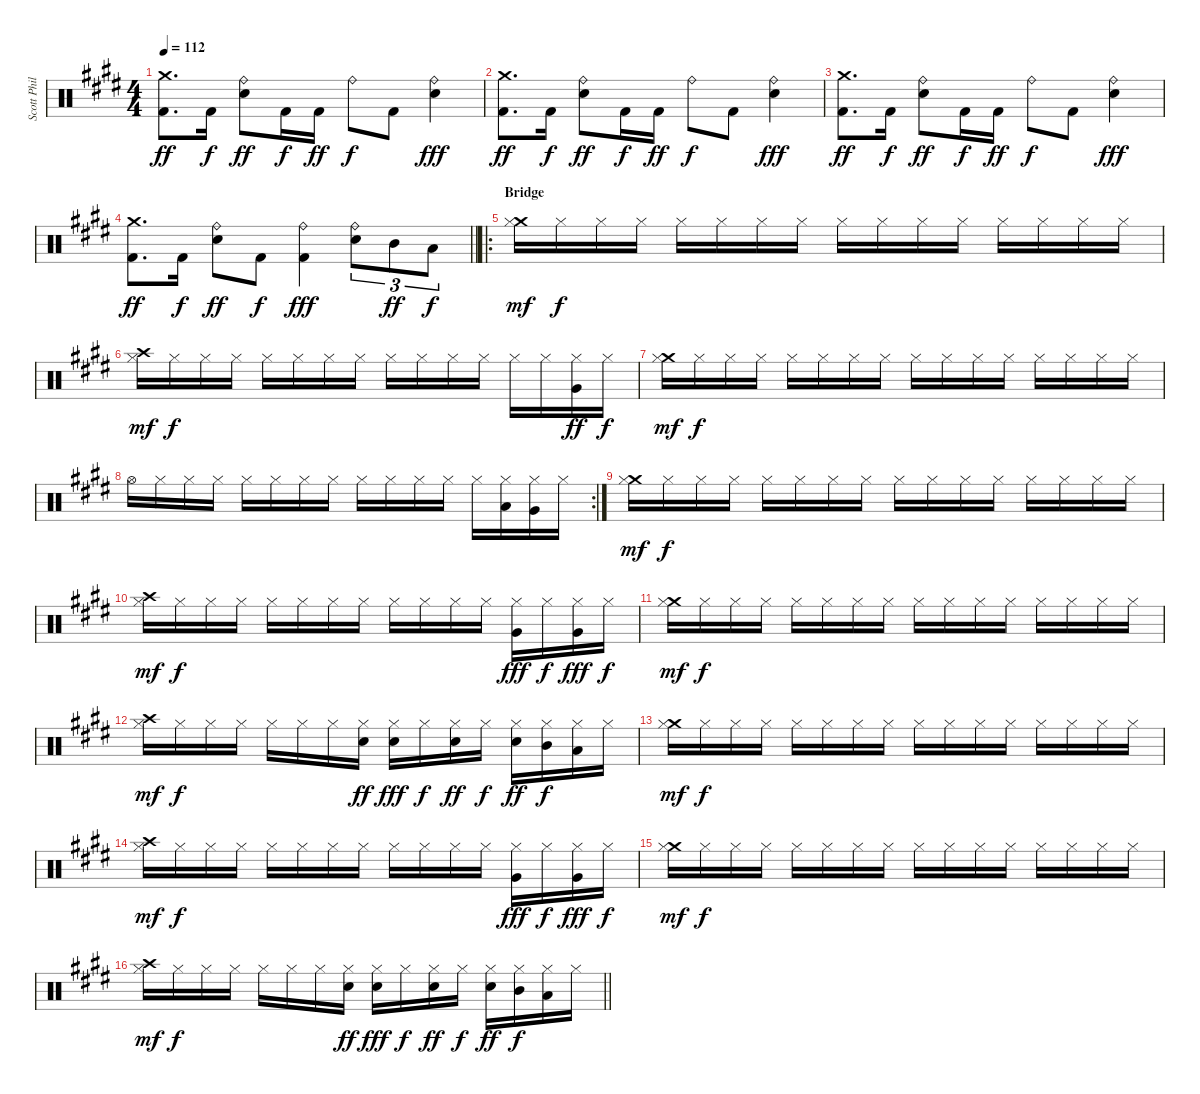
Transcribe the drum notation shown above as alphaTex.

\track ("Scott Phillips" "Scott Phil") {instrument percussion}
\staff {score}
\articulation defaults
\ts (4 4)
\tempo 112
\clef neutral
\ks c#minor
("Crash medium (hit)" "Kick (hit) 2").8{d dy ff} "Kick (hit) 2".16{dy f} ("Ride (bell)" "Electric Snare (hit)").8{dy ff} "Kick (hit) 2".16{dy f} "Kick (hit) 2".16{dy ff} "Ride (bell)".8{dy f} "Kick (hit) 2".8 ("Ride (bell)" "Electric Snare (hit)").4{dy fff} |
("Crash medium (hit)" "Kick (hit) 2").8{d dy ff} "Kick (hit) 2".16{dy f} ("Ride (bell)" "Electric Snare (hit)").8{dy ff} "Kick (hit) 2".16{dy f} "Kick (hit) 2".16{dy ff} "Ride (bell)".8{dy f} "Kick (hit) 2".8 ("Ride (bell)" "Electric Snare (hit)").4{dy fff} |
("Crash medium (hit)" "Kick (hit) 2").8{d dy ff} "Kick (hit) 2".16{dy f} ("Ride (bell)" "Electric Snare (hit)").8{dy ff} "Kick (hit) 2".16{dy f} "Kick (hit) 2".16{dy ff} "Ride (bell)".8{dy f} "Kick (hit) 2".8 ("Ride (bell)" "Electric Snare (hit)").4{dy fff} |
\barLineRight lightlight
("Crash medium (hit)" "Kick (hit) 2").8{d dy ff} "Kick (hit) 2".16{dy f} ("Ride (bell)" "Electric Snare (hit)").8{dy ff} "Kick (hit) 2".8{dy f} ("Ride (bell)" "Kick (hit) 2").4{dy fff} ("Ride (bell)" "Electric Snare (hit)").8{tu (3 2)} "Mid Tom (hit)".8{tu (3 2) dy ff} "Low Floor Tom (hit)".8{tu (3 2) dy f} |
\ro
\section ("" "Bridge")
("Crash medium (hit)" "Hi-Hat (closed)").16{dy mf} "Hi-Hat (closed)".16{dy f} "Hi-Hat (closed)".16 "Hi-Hat (closed)".16 "Hi-Hat (closed)".16 "Hi-Hat (closed)".16 "Hi-Hat (closed)".16 "Hi-Hat (closed)".16 "Hi-Hat (closed)".16 "Hi-Hat (closed)".16 "Hi-Hat (closed)".16 "Hi-Hat (closed)".16 "Hi-Hat (closed)".16 "Hi-Hat (closed)".16 "Hi-Hat (closed)".16 "Hi-Hat (closed)".16 |
("Crash high (hit)" "Hi-Hat (closed)").16{dy mf} "Hi-Hat (closed)".16{dy f} "Hi-Hat (closed)".16 "Hi-Hat (closed)".16 "Hi-Hat (closed)".16 "Hi-Hat (closed)".16 "Hi-Hat (closed)".16 "Hi-Hat (closed)".16 "Hi-Hat (closed)".16 "Hi-Hat (closed)".16 "Hi-Hat (closed)".16 "Hi-Hat (closed)".16 "Hi-Hat (closed)".16 "Hi-Hat (closed)".16 ("Hi-Hat (closed)" "Very Low Tom (hit)").16{dy ff} "Hi-Hat (closed)".16{dy f} |
("Crash medium (hit)" "Hi-Hat (closed)").16{dy mf} "Hi-Hat (closed)".16{dy f} "Hi-Hat (closed)".16 "Hi-Hat (closed)".16 "Hi-Hat (closed)".16 "Hi-Hat (closed)".16 "Hi-Hat (closed)".16 "Hi-Hat (closed)".16 "Hi-Hat (closed)".16 "Hi-Hat (closed)".16 "Hi-Hat (closed)".16 "Hi-Hat (closed)".16 "Hi-Hat (closed)".16 "Hi-Hat (closed)".16 "Hi-Hat (closed)".16 "Hi-Hat (closed)".16 |
\rc 2 "Hi-Hat (open)".16 "Hi-Hat (closed)".16 "Hi-Hat (closed)".16 "Hi-Hat (closed)".16 "Hi-Hat (closed)".16 "Hi-Hat (closed)".16 "Hi-Hat (closed)".16 "Hi-Hat (closed)".16 "Hi-Hat (closed)".16 "Hi-Hat (closed)".16 "Hi-Hat (closed)".16 "Hi-Hat (closed)".16 "Hi-Hat (closed)".16
("Hi-Hat (closed)" "Low Floor Tom (hit)").16 ("Hi-Hat (closed)" "Very Low Tom (hit)").16 "Hi-Hat (closed)".16 |
("Crash medium (hit)" "Hi-Hat (closed)").16{dy mf} "Hi-Hat (closed)".16{dy f} "Hi-Hat (closed)".16 "Hi-Hat (closed)".16 "Hi-Hat (closed)".16 "Hi-Hat (closed)".16 "Hi-Hat (closed)".16 "Hi-Hat (closed)".16 "Hi-Hat (closed)".16 "Hi-Hat (closed)".16 "Hi-Hat (closed)".16 "Hi-Hat (closed)".16 "Hi-Hat (closed)".16 "Hi-Hat (closed)".16 "Hi-Hat (closed)".16 "Hi-Hat (closed)".16 |
("Crash high (hit)" "Hi-Hat (closed)").16{dy mf} "Hi-Hat (closed)".16{dy f} "Hi-Hat (closed)".16 "Hi-Hat (closed)".16 "Hi-Hat (closed)".16 "Hi-Hat (closed)".16 "Hi-Hat (closed)".16 "Hi-Hat (closed)".16 "Hi-Hat (closed)".16 "Hi-Hat (closed)".16 "Hi-Hat (closed)".16 "Hi-Hat (closed)".16 ("Hi-Hat (closed)" "Very Low Tom (hit)").16{dy fff} "Hi-Hat (closed)".16{dy f} ("Hi-Hat (closed)" "Very Low Tom (hit)").16{dy fff} "Hi-Hat (closed)".16{dy f} |
("Crash medium (hit)" "Hi-Hat (closed)").16{dy mf} "Hi-Hat (closed)".16{dy f} "Hi-Hat (closed)".16 "Hi-Hat (closed)".16 "Hi-Hat (closed)".16 "Hi-Hat (closed)".16 "Hi-Hat (closed)".16 "Hi-Hat (closed)".16 "Hi-Hat (closed)".16 "Hi-Hat (closed)".16 "Hi-Hat (closed)".16 "Hi-Hat (closed)".16 "Hi-Hat (closed)".16 "Hi-Hat (closed)".16 "Hi-Hat (closed)".16 "Hi-Hat (closed)".16 |
("Crash high (hit)" "Hi-Hat (closed)").16{dy mf} "Hi-Hat (closed)".16{dy f} "Hi-Hat (closed)".16 "Hi-Hat (closed)".16 "Hi-Hat (closed)".16 "Hi-Hat (closed)".16 "Hi-Hat (closed)".16 ("Hi-Hat (closed)" "Electric Snare (hit)").16{dy ff} ("Hi-Hat (closed)" "Electric Snare (hit)").16{dy fff} "Hi-Hat (closed)".16{dy f} ("Hi-Hat (closed)" "Electric Snare (hit)").16{dy ff} "Hi-Hat (closed)".16{dy f} ("Hi-Hat (closed)" "Electric Snare (hit)").16{dy ff} ("Hi-Hat (closed)" "Mid Tom (hit)").16{dy f} ("Hi-Hat (closed)" "Low Floor Tom (hit)").16 "Hi-Hat (closed)".16 |
("Crash medium (hit)" "Hi-Hat (closed)").16{dy mf} "Hi-Hat (closed)".16{dy f} "Hi-Hat (closed)".16 "Hi-Hat (closed)".16 "Hi-Hat (closed)".16 "Hi-Hat (closed)".16 "Hi-Hat (closed)".16 "Hi-Hat (closed)".16 "Hi-Hat (closed)".16 "Hi-Hat (closed)".16 "Hi-Hat (closed)".16 "Hi-Hat (closed)".16 "Hi-Hat (closed)".16 "Hi-Hat (closed)".16 "Hi-Hat (closed)".16 "Hi-Hat (closed)".16 |
("Crash high (hit)" "Hi-Hat (closed)").16{dy mf} "Hi-Hat (closed)".16{dy f} "Hi-Hat (closed)".16 "Hi-Hat (closed)".16 "Hi-Hat (closed)".16 "Hi-Hat (closed)".16 "Hi-Hat (closed)".16 "Hi-Hat (closed)".16 "Hi-Hat (closed)".16 "Hi-Hat (closed)".16 "Hi-Hat (closed)".16 "Hi-Hat (closed)".16 ("Hi-Hat (closed)" "Very Low Tom (hit)").16{dy fff} "Hi-Hat (closed)".16{dy f} ("Hi-Hat (closed)" "Very Low Tom (hit)").16{dy fff} "Hi-Hat (closed)".16{dy f} |
("Crash medium (hit)" "Hi-Hat (closed)").16{dy mf} "Hi-Hat (closed)".16{dy f} "Hi-Hat (closed)".16 "Hi-Hat (closed)".16 "Hi-Hat (closed)".16 "Hi-Hat (closed)".16 "Hi-Hat (closed)".16 "Hi-Hat (closed)".16 "Hi-Hat (closed)".16 "Hi-Hat (closed)".16 "Hi-Hat (closed)".16 "Hi-Hat (closed)".16 "Hi-Hat (closed)".16 "Hi-Hat (closed)".16 "Hi-Hat (closed)".16 "Hi-Hat (closed)".16 |
\barLineRight lightlight
("Crash high (hit)" "Hi-Hat (closed)").16{dy mf} "Hi-Hat (closed)".16{dy f} "Hi-Hat (closed)".16 "Hi-Hat (closed)".16 "Hi-Hat (closed)".16 "Hi-Hat (closed)".16 "Hi-Hat (closed)".16 ("Hi-Hat (closed)" "Electric Snare (hit)").16{dy ff} ("Hi-Hat (closed)" "Electric Snare (hit)").16{dy fff} "Hi-Hat (closed)".16{dy f} ("Hi-Hat (closed)" "Electric Snare (hit)").16{dy ff} "Hi-Hat (closed)".16{dy f} ("Hi-Hat (closed)" "Electric Snare (hit)").16{dy ff} ("Hi-Hat (closed)" "Mid Tom (hit)").16{dy f} ("Hi-Hat (closed)" "Low Floor Tom (hit)").16 "Hi-Hat (closed)".16
